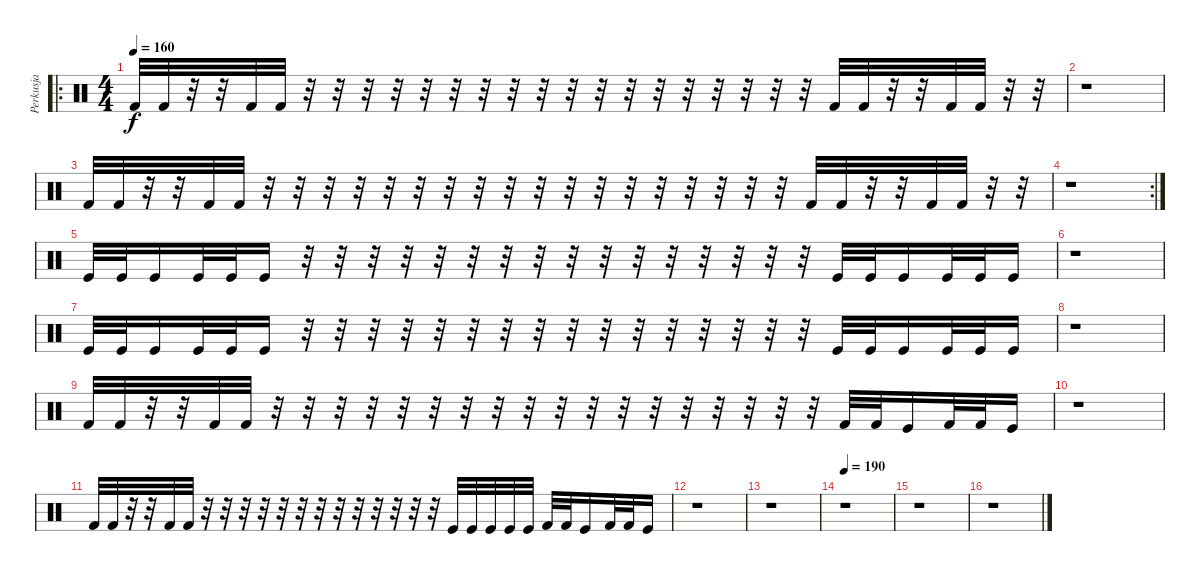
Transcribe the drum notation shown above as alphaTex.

\track ("Perkusja" "Perkusja") {instrument percussion}
\staff {score}
\articulation defaults
\ro
\ts (4 4)
\tempo 160
\clef neutral
\ks c "Kick (hit) 2".32{dy f} "Kick (hit) 2".32
r.32 r.32 "Kick (hit) 2".32 "Kick (hit) 2".32 r.32 r.32 r.32 r.32 r.32 r.32 r.32 r.32 r.32 r.32 r.32 r.32 r.32 r.32 r.32 r.32 r.32 r.32 "Kick (hit) 2".32 "Kick (hit) 2".32 r.32 r.32 "Kick (hit) 2".32 "Kick (hit) 2".32 r.32 r.32 |
r.1 |
"Kick (hit) 2".32 "Kick (hit) 2".32 r.32 r.32 "Kick (hit) 2".32 "Kick (hit) 2".32 r.32 r.32 r.32 r.32 r.32 r.32 r.32 r.32 r.32 r.32 r.32 r.32 r.32 r.32 r.32 r.32 r.32 r.32 "Kick (hit) 2".32 "Kick (hit) 2".32 r.32 r.32 "Kick (hit) 2".32 "Kick (hit) 2".32 r.32 r.32 |
\rc 2
r.1 |
"Kick (hit)".32 "Kick (hit)".32 "Kick (hit)".16 "Kick (hit)".32 "Kick (hit)".32 "Kick (hit)".16 r.32 r.32 r.32 r.32 r.32 r.32 r.32 r.32 r.32 r.32 r.32 r.32 r.32 r.32 r.32 r.32 "Kick (hit)".32 "Kick (hit)".32 "Kick (hit)".16 "Kick (hit)".32 "Kick (hit)".32 "Kick (hit)".16 |
r.1 |
"Kick (hit)".32 "Kick (hit)".32 "Kick (hit)".16 "Kick (hit)".32 "Kick (hit)".32 "Kick (hit)".16 r.32 r.32 r.32 r.32 r.32 r.32 r.32 r.32 r.32 r.32 r.32 r.32 r.32 r.32 r.32 r.32 "Kick (hit)".32 "Kick (hit)".32 "Kick (hit)".16 "Kick (hit)".32 "Kick (hit)".32 "Kick (hit)".16 |
r.1 |
"Kick (hit) 2".32 "Kick (hit) 2".32 r.32 r.32 "Kick (hit) 2".32 "Kick (hit) 2".32 r.32 r.32 r.32 r.32 r.32 r.32 r.32 r.32 r.32 r.32 r.32 r.32 r.32 r.32 r.32 r.32 r.32 r.32 "Kick (hit) 2".32 "Kick (hit) 2".32 "Kick (hit)".16 "Kick (hit) 2".32 "Kick (hit) 2".32 "Kick (hit)".16 |
r.1 |
"Kick (hit) 2".32 "Kick (hit) 2".32 r.32 r.32 "Kick (hit) 2".32 "Kick (hit) 2".32 r.32 r.32 r.32 r.32 r.32 r.32 r.32 r.32 r.32 r.32 r.32 r.32 r.32 "Kick (hit)".32 "Kick (hit)".32 "Kick (hit)".32 "Kick (hit)".32 "Kick (hit)".32 "Kick (hit) 2".32 "Kick (hit) 2".32 "Kick (hit)".16 "Kick (hit) 2".32 "Kick (hit) 2".32 "Kick (hit)".16 |
r.1 |
r.1 |
\tempo 190
r.1 |
r.1 |
r.1
